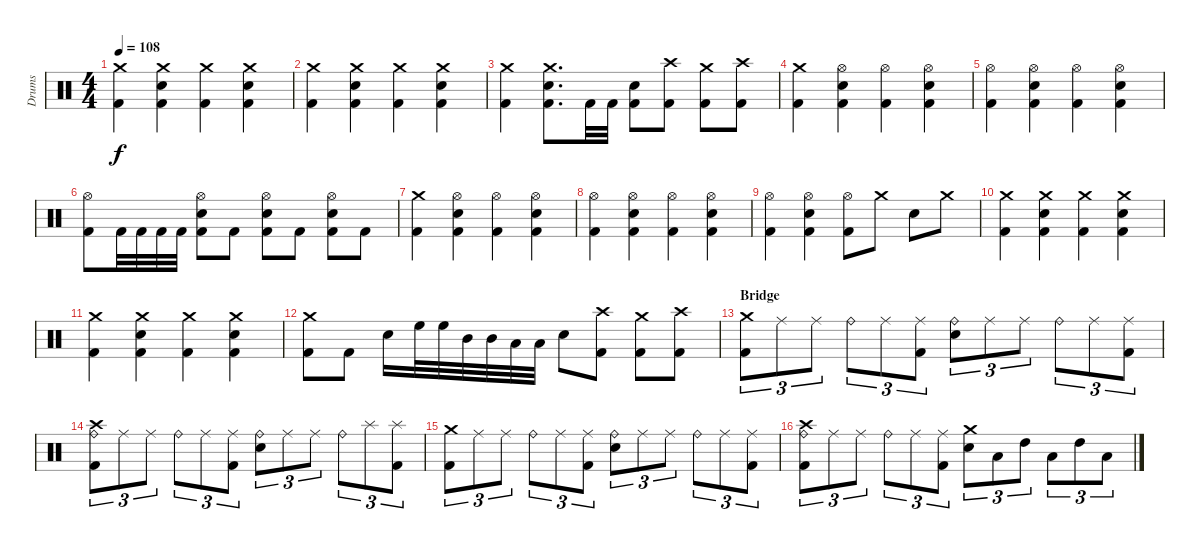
\track ("Drums" "Drums") {instrument percussion}
\staff {score}
\articulation defaults
\ts (4 4)
\tempo 108
\clef neutral
\ks c
("Crash medium (hit)" "Kick (hit) 2").4{dy f} ("Crash medium (hit)" "Snare (hit) 2" "Kick (hit) 2").4 ("Crash medium (hit)" "Kick (hit) 2").4 ("Crash medium (hit)" "Snare (hit) 2" "Kick (hit) 2").4 |
("Crash medium (hit)" "Kick (hit) 2").4 ("Crash medium (hit)" "Snare (hit) 2" "Kick (hit) 2").4 ("Crash medium (hit)" "Kick (hit) 2").4 ("Crash medium (hit)" "Snare (hit) 2" "Kick (hit) 2").4 |
("Crash medium (hit)" "Kick (hit) 2").4 ("Crash medium (hit)" "Snare (hit) 2" "Kick (hit) 2").8{d} "Kick (hit) 2".32 "Kick (hit) 2".32 ("Snare (hit) 2" "Kick (hit) 2").8 ("Crash high (hit)" "Kick (hit) 2").8 ("Crash medium (hit)" "Kick (hit) 2").8 ("Crash high (hit)" "Kick (hit) 2").8 |
("Crash medium (hit)" "Kick (hit) 2").4 ("Hi-Hat (open)" "Snare (hit) 2" "Kick (hit) 2").4 ("Hi-Hat (open)" "Kick (hit) 2").4 ("Hi-Hat (open)" "Snare (hit) 2" "Kick (hit) 2").4 |
("Hi-Hat (open)" "Kick (hit) 2").4 ("Hi-Hat (open)" "Snare (hit) 2" "Kick (hit) 2").4 ("Hi-Hat (open)" "Kick (hit) 2").4 ("Hi-Hat (open)" "Snare (hit) 2" "Kick (hit) 2").4 |
("Hi-Hat (open)" "Kick (hit) 2").8 "Kick (hit) 2".32 "Kick (hit) 2".32 "Kick (hit) 2".32 "Kick (hit) 2".32 ("Hi-Hat (open)" "Snare (hit) 2" "Kick (hit) 2").8 "Kick (hit) 2".8 ("Hi-Hat (open)" "Snare (hit) 2" "Kick (hit) 2").8 "Kick (hit) 2".8 ("Hi-Hat (open)" "Snare (hit) 2" "Kick (hit) 2").8 "Kick (hit) 2".8 |
("Crash medium (hit)" "Kick (hit) 2").4 ("Hi-Hat (open)" "Snare (hit) 2" "Kick (hit) 2").4 ("Hi-Hat (open)" "Kick (hit) 2").4 ("Hi-Hat (open)" "Snare (hit) 2" "Kick (hit) 2").4 |
("Hi-Hat (open)" "Kick (hit) 2").4 ("Hi-Hat (open)" "Snare (hit) 2" "Kick (hit) 2").4 ("Hi-Hat (open)" "Kick (hit) 2").4 ("Hi-Hat (open)" "Snare (hit) 2" "Kick (hit) 2").4 |
("Hi-Hat (open)" "Kick (hit) 2").4 ("Hi-Hat (open)" "Snare (hit) 2" "Kick (hit) 2").4 ("Hi-Hat (open)" "Kick (hit) 2").8 "Crash medium (hit)".8 "Snare (hit) 2".8 "Crash medium (hit)".8 |
("Crash medium (hit)" "Kick (hit) 2").4 ("Crash medium (hit)" "Snare (hit) 2" "Kick (hit) 2").4 ("Crash medium (hit)" "Kick (hit) 2").4 ("Crash medium (hit)" "Snare (hit) 2" "Kick (hit) 2").4 |
("Crash medium (hit)" "Kick (hit) 2").4 ("Crash medium (hit)" "Snare (hit) 2" "Kick (hit) 2").4 ("Crash medium (hit)" "Kick (hit) 2").4 ("Crash medium (hit)" "Snare (hit) 2" "Kick (hit) 2").4 |
("Crash medium (hit)" "Kick (hit) 2").8 "Kick (hit) 2".8 "Snare (hit) 2".16 "High Floor Tom (hit)".32 "High Floor Tom (hit)".32 "Mid Tom (hit)".32 "Mid Tom (hit)".32 "Low Tom (hit)".32 "Low Tom (hit)".32 "Snare (hit) 2".8 ("Crash high (hit)" "Kick (hit) 2").8 ("Crash medium (hit)" "Kick (hit) 2").8 ("Crash high (hit)" "Kick (hit) 2").8 |
\section ("" "Bridge")
("Crash medium (hit)" "Kick (hit) 2").8{tu (3 2)} "Ride (middle)".8{tu (3 2)} "Ride (middle)".8{tu (3 2)} "Ride (bell)".8{tu (3 2)} "Ride (middle)".8{tu (3 2)} ("Ride (middle)" "Kick (hit) 2").8{tu (3 2)} ("Ride (bell)" "Snare (hit) 2").8{tu (3 2)} "Ride (middle)".8{tu (3 2)} "Ride (middle)".8{tu (3 2)} "Ride (bell)".8{tu (3 2)} "Ride (middle)".8{tu (3 2)} ("Ride (middle)" "Kick (hit) 2").8{tu (3 2)} |
("Crash high (hit)" "Ride (bell)" "Kick (hit) 2").8{tu (3 2)} "Ride (middle)".8{tu (3 2)} "Ride (middle)".8{tu (3 2)} "Ride (bell)".8{tu (3 2)} "Ride (middle)".8{tu (3 2)} ("Ride (middle)" "Kick (hit) 2").8{tu (3 2)} ("Ride (bell)" "Snare (hit) 2").8{tu (3 2)} "Ride (middle)".8{tu (3 2)} "Ride (middle)".8{tu (3 2)} "Ride (bell)".8{tu (3 2)} "Splash (hit)".8{tu (3 2)} ("Splash (hit)" "Kick (hit) 2").8{tu (3 2)} |
("Crash medium (hit)" "Kick (hit) 2").8{tu (3 2)} "Ride (middle)".8{tu (3 2)} "Ride (middle)".8{tu (3 2)} "Ride (bell)".8{tu (3 2)} "Ride (middle)".8{tu (3 2)} ("Ride (middle)" "Kick (hit) 2").8{tu (3 2)} ("Ride (bell)" "Snare (hit) 2").8{tu (3 2)} "Ride (middle)".8{tu (3 2)} "Ride (middle)".8{tu (3 2)} "Ride (bell)".8{tu (3 2)} "Ride (middle)".8{tu (3 2)} ("Ride (middle)" "Kick (hit) 2").8{tu (3 2)} |
("Crash high (hit)" "Ride (bell)" "Kick (hit) 2").8{tu (3 2)} "Ride (middle)".8{tu (3 2)} "Ride (middle)".8{tu (3 2)} "Ride (bell)".8{tu (3 2)} "Ride (middle)".8{tu (3 2)} ("Ride (middle)" "Kick (hit) 2").8{tu (3 2)} ("Crash medium (hit)" "Snare (hit) 2").8{tu (3 2)} "Low Tom (hit)".8{tu (3 2)} "High Tom (hit)".8{tu (3 2)} "Low Tom (hit)".8{tu (3 2)} "High Tom (hit)".8{tu (3 2)} "Low Tom (hit)".8{tu (3 2)}
